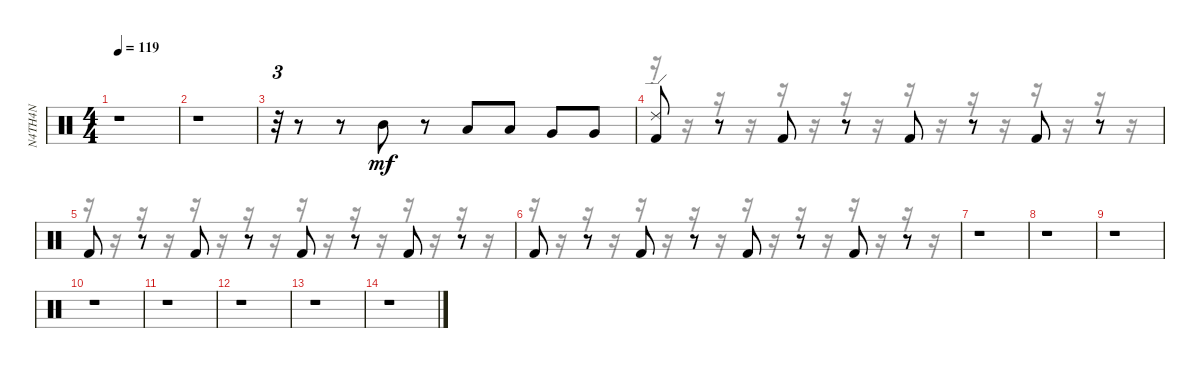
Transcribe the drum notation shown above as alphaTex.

\track ("N4TH4N" "N4TH4N") {instrument percussion}
\staff {score}
\articulation defaults
\voice
\ts (4 4)
\tempo 119
\clef neutral
\ks c
r.1{dy f} |
r.1 |
r.32{tu (3 2)} r.8 r.8 "Mid Tom (hit)".8{dy mf} r.8 "Low Tom (hit)".8 "Low Tom (hit)".8 "Very Low Tom (hit)".8 "Very Low Tom (hit)".8 |
("Kick (hit) 2" "Ride (edge) 2").8 r.8 "Kick (hit) 2".8 r.8 "Kick (hit) 2".8 r.8 "Kick (hit) 2".8 r.8 |
"Kick (hit) 2".8 r.8 "Kick (hit) 2".8 r.8 "Kick (hit) 2".8 r.8 "Kick (hit) 2".8 r.8 |
"Kick (hit) 2".8 r.8 "Kick (hit) 2".8 r.8 "Kick (hit) 2".8 r.8 "Kick (hit) 2".8 r.8 |
r.1 |
r.1 |
r.1 |
r.1 |
r.1 |
r.1 |
r.1 |
r.1
\voice
\clef neutral
\ottava regular
\simile none
\ks c
|
|
|
r.16 r.16 r.16 r.16 r.16 r.16 r.16 r.16 r.16 r.16 r.16 r.16 r.16 r.16 r.16 r.16 |
r.16 r.16 r.16 r.16 r.16 r.16 r.16 r.16 r.16 r.16 r.16 r.16 r.16 r.16 r.16 r.16 |
r.16 r.16 r.16 r.16 r.16 r.16 r.16 r.16 r.16 r.16 r.16 r.16 r.16 r.16 r.16 r.16 |
|
|
|
|
|
|
|
